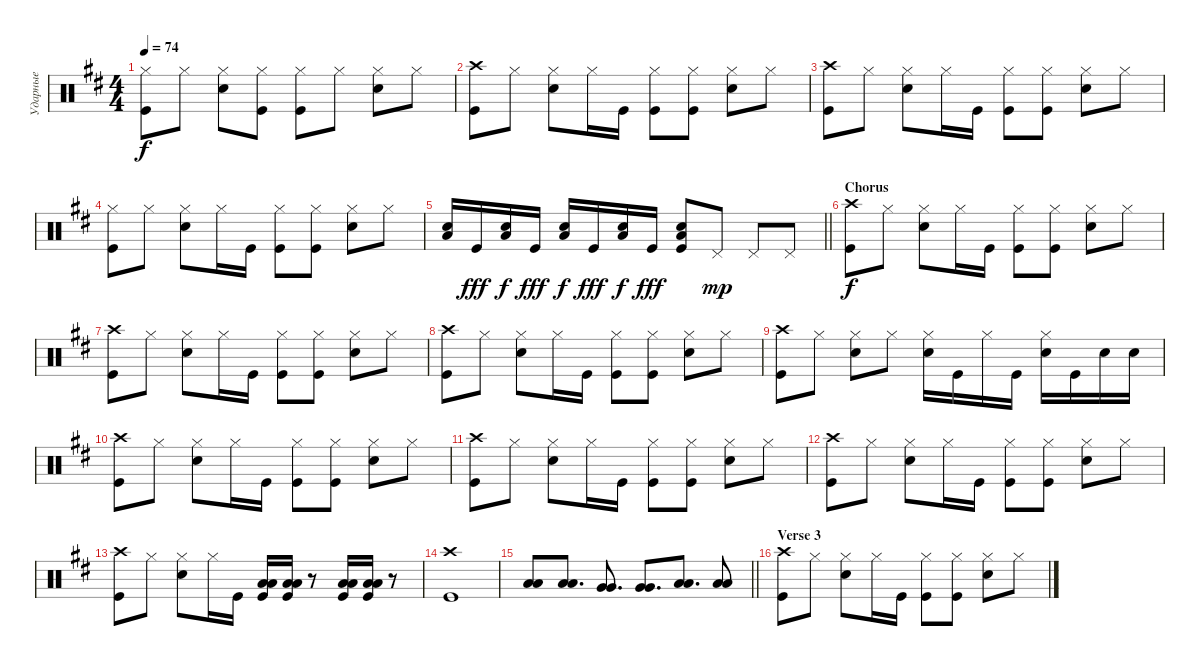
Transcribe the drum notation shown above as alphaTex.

\track ("Ударные" "Ударные") {instrument percussion}
\staff {score}
\articulation defaults
\ts (4 4)
\tempo 74
\clef neutral
\ks bminor
("Kick (hit)" "Hi-Hat (closed)").8{dy f} "Hi-Hat (closed)".8 ("Hi-Hat (closed)" "Snare (hit) 2").8 ("Hi-Hat (closed)" "Kick (hit)").8 ("Kick (hit)" "Hi-Hat (closed)").8 "Hi-Hat (closed)".8 ("Snare (hit) 2" "Hi-Hat (closed)").8 "Hi-Hat (closed)".8 |
("Kick (hit)" "Crash high (hit)").8 "Hi-Hat (closed)".8 ("Hi-Hat (closed)" "Snare (hit) 2").8 "Hi-Hat (closed)".16 "Kick (hit)".16 ("Kick (hit)" "Hi-Hat (closed)").8 ("Kick (hit)" "Hi-Hat (closed)").8 ("Snare (hit) 2" "Hi-Hat (closed)").8 "Hi-Hat (closed)".8 |
("Kick (hit)" "Crash high (hit)").8 "Hi-Hat (closed)".8 ("Hi-Hat (closed)" "Snare (hit) 2").8 "Hi-Hat (closed)".16 "Kick (hit)".16 ("Kick (hit)" "Hi-Hat (closed)").8 ("Kick (hit)" "Hi-Hat (closed)").8 ("Snare (hit) 2" "Hi-Hat (closed)").8 "Hi-Hat (closed)".8 |
("Kick (hit)" "Hi-Hat (closed)").8 "Hi-Hat (closed)".8 ("Hi-Hat (closed)" "Snare (hit) 2").8 "Hi-Hat (closed)".16 "Kick (hit)".16 ("Kick (hit)" "Hi-Hat (closed)").8 ("Kick (hit)" "Hi-Hat (closed)").8 ("Snare (hit) 2" "Hi-Hat (closed)").8 "Hi-Hat (closed)".8 |
\barLineRight lightlight
("Snare (hit) 2" "Low Tom (hit)").16{bd 240} "Kick (hit)".16{dy fff} ("Snare (hit) 2" "Low Tom (hit)").16{bd 240 dy f} "Kick (hit)".16{dy fff} ("Snare (hit) 2" "Low Tom (hit)").16{bd 240 dy f} "Kick (hit)".16{dy fff} ("Snare (hit) 2" "Low Tom (hit)").16{bd 240 dy f} "Kick (hit)".16{dy fff} ("Kick (hit)" "Low Tom (hit)" "Snare (hit) 2").8{bd 240} "Pedal Hi-Hat (hit)".8{dy mp} "Pedal Hi-Hat (hit)".8 "Pedal Hi-Hat (hit)".8 |
\section ("" "Chorus")
("Kick (hit)" "Crash high (hit)").8{dy f} "Hi-Hat (closed)".8 ("Hi-Hat (closed)" "Snare (hit) 2").8 "Hi-Hat (closed)".16 "Kick (hit)".16 ("Kick (hit)" "Hi-Hat (closed)").8 ("Kick (hit)" "Hi-Hat (closed)").8 ("Snare (hit) 2" "Hi-Hat (closed)").8 "Hi-Hat (closed)".8 |
("Kick (hit)" "Crash high (hit)").8 "Hi-Hat (closed)".8 ("Hi-Hat (closed)" "Snare (hit) 2").8 "Hi-Hat (closed)".16 "Kick (hit)".16 ("Kick (hit)" "Hi-Hat (closed)").8 ("Kick (hit)" "Hi-Hat (closed)").8 ("Snare (hit) 2" "Hi-Hat (closed)").8 "Hi-Hat (closed)".8 |
("Kick (hit)" "Crash high (hit)").8 "Hi-Hat (closed)".8 ("Hi-Hat (closed)" "Snare (hit) 2").8 "Hi-Hat (closed)".16 "Kick (hit)".16 ("Kick (hit)" "Hi-Hat (closed)").8 ("Kick (hit)" "Hi-Hat (closed)").8 ("Snare (hit) 2" "Hi-Hat (closed)").8 "Hi-Hat (closed)".8 |
("Kick (hit)" "Crash high (hit)").8 "Hi-Hat (closed)".8 ("Hi-Hat (closed)" "Snare (hit) 2").8 "Hi-Hat (closed)".8 ("Snare (hit) 2" "Hi-Hat (closed)").16 "Kick (hit)".16 "Hi-Hat (closed)".16 "Kick (hit)".16 ("Snare (hit) 2" "Hi-Hat (closed)").16 "Kick (hit)".16 "Snare (hit) 2".16 "Snare (hit) 2".16 |
("Kick (hit)" "Crash high (hit)").8 "Hi-Hat (closed)".8 ("Hi-Hat (closed)" "Snare (hit) 2").8 "Hi-Hat (closed)".16 "Kick (hit)".16 ("Kick (hit)" "Hi-Hat (closed)").8 ("Kick (hit)" "Hi-Hat (closed)").8 ("Snare (hit) 2" "Hi-Hat (closed)").8 "Hi-Hat (closed)".8 |
("Kick (hit)" "Crash high (hit)").8 "Hi-Hat (closed)".8 ("Hi-Hat (closed)" "Snare (hit) 2").8 "Hi-Hat (closed)".16 "Kick (hit)".16 ("Kick (hit)" "Hi-Hat (closed)").8 ("Kick (hit)" "Hi-Hat (closed)").8 ("Snare (hit) 2" "Hi-Hat (closed)").8 "Hi-Hat (closed)".8 |
("Kick (hit)" "Crash high (hit)").8 "Hi-Hat (closed)".8 ("Hi-Hat (closed)" "Snare (hit) 2").8 "Hi-Hat (closed)".16 "Kick (hit)".16 ("Kick (hit)" "Hi-Hat (closed)").8 ("Kick (hit)" "Hi-Hat (closed)").8 ("Snare (hit) 2" "Hi-Hat (closed)").8 "Hi-Hat (closed)".8 |
("Kick (hit)" "Crash high (hit)").8 "Hi-Hat (closed)".8 ("Hi-Hat (closed)" "Snare (hit) 2").8 "Hi-Hat (closed)".16 "Kick (hit)".16 ("Low Tom (hit)" "Low Tom (hit)" "Kick (hit)").16{bd 60} ("Low Tom (hit)" "Low Tom (hit)" "Kick (hit)").16{bd 60} r.8 ("Kick (hit)" "Low Tom (hit)" "Low Tom (hit)").16{bd 60} ("Kick (hit)" "Low Tom (hit)" "Low Tom (hit)").16{bd 60} r.8 |
("Kick (hit)" "Crash high (hit)").1 |
\barLineRight lightlight
("Low Tom (hit)" "Low Tom (hit)").8{bd 120} ("Low Tom (hit)" "Low Tom (hit)").8{d bd 120} ("Very Low Tom (hit)" "Very Low Tom (hit)").8{d bd 120} ("Very Low Tom (hit)" "Very Low Tom (hit)").8{d bd 120} ("Low Floor Tom (hit)" "Low Floor Tom (hit)").8{d bd 120} ("Low Floor Tom (hit)" "Low Floor Tom (hit)").8{bd 120} |
\section ("" "Verse 3")
("Kick (hit)" "Crash high (hit)").8 "Hi-Hat (closed)".8 ("Hi-Hat (closed)" "Snare (hit) 2").8 "Hi-Hat (closed)".16 "Kick (hit)".16 ("Kick (hit)" "Hi-Hat (closed)").8 ("Kick (hit)" "Hi-Hat (closed)").8 ("Snare (hit) 2" "Hi-Hat (closed)").8 "Hi-Hat (closed)".8
